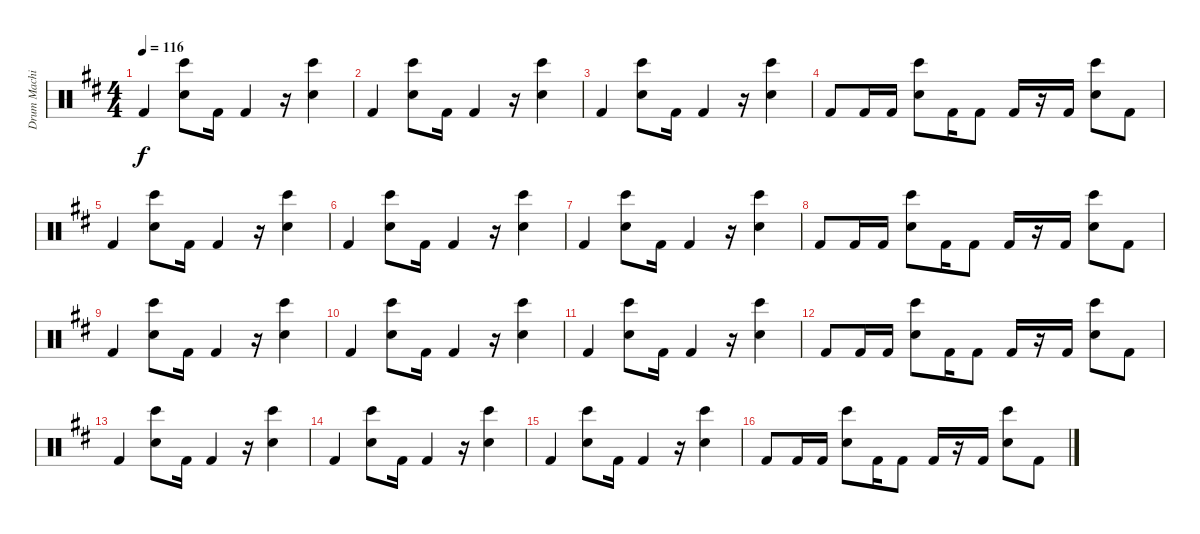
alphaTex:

\track ("Drum Machine" "Drum Machi") {instrument percussion}
\staff {score}
\articulation defaults
\ts (4 4)
\tempo 116
\clef neutral
\ks bminor "Kick (hit) 2".4{dy f}
("Bongo High (hit)" "Electric Snare (hit)").8 "Kick (hit) 2".16 "Kick (hit) 2".4 r.16 ("Bongo High (hit)" "Electric Snare (hit)").4 |
"Kick (hit) 2".4 ("Bongo High (hit)" "Electric Snare (hit)").8 "Kick (hit) 2".16 "Kick (hit) 2".4 r.16 ("Bongo High (hit)" "Electric Snare (hit)").4 |
"Kick (hit) 2".4 ("Bongo High (hit)" "Electric Snare (hit)").8 "Kick (hit) 2".16 "Kick (hit) 2".4 r.16 ("Bongo High (hit)" "Electric Snare (hit)").4 |
"Kick (hit) 2".8 "Kick (hit) 2".16 "Kick (hit) 2".16 ("Bongo High (hit)" "Electric Snare (hit)").8 "Kick (hit) 2".16 "Kick (hit) 2".8 "Kick (hit) 2".16 r.16 "Kick (hit) 2".16 ("Bongo High (hit)" "Electric Snare (hit)").8 "Kick (hit) 2".8 |
"Kick (hit) 2".4 ("Bongo High (hit)" "Electric Snare (hit)").8 "Kick (hit) 2".16 "Kick (hit) 2".4 r.16 ("Bongo High (hit)" "Electric Snare (hit)").4 |
"Kick (hit) 2".4 ("Bongo High (hit)" "Electric Snare (hit)").8 "Kick (hit) 2".16 "Kick (hit) 2".4 r.16 ("Bongo High (hit)" "Electric Snare (hit)").4 |
"Kick (hit) 2".4 ("Bongo High (hit)" "Electric Snare (hit)").8 "Kick (hit) 2".16 "Kick (hit) 2".4 r.16 ("Bongo High (hit)" "Electric Snare (hit)").4 |
"Kick (hit) 2".8 "Kick (hit) 2".16 "Kick (hit) 2".16 ("Bongo High (hit)" "Electric Snare (hit)").8 "Kick (hit) 2".16 "Kick (hit) 2".8 "Kick (hit) 2".16 r.16 "Kick (hit) 2".16 ("Bongo High (hit)" "Electric Snare (hit)").8 "Kick (hit) 2".8 |
"Kick (hit) 2".4 ("Bongo High (hit)" "Electric Snare (hit)").8 "Kick (hit) 2".16 "Kick (hit) 2".4 r.16 ("Bongo High (hit)" "Electric Snare (hit)").4 |
"Kick (hit) 2".4 ("Bongo High (hit)" "Electric Snare (hit)").8 "Kick (hit) 2".16 "Kick (hit) 2".4 r.16 ("Bongo High (hit)" "Electric Snare (hit)").4 |
"Kick (hit) 2".4 ("Bongo High (hit)" "Electric Snare (hit)").8 "Kick (hit) 2".16 "Kick (hit) 2".4 r.16 ("Bongo High (hit)" "Electric Snare (hit)").4 |
"Kick (hit) 2".8 "Kick (hit) 2".16 "Kick (hit) 2".16 ("Bongo High (hit)" "Electric Snare (hit)").8 "Kick (hit) 2".16 "Kick (hit) 2".8 "Kick (hit) 2".16 r.16 "Kick (hit) 2".16 ("Bongo High (hit)" "Electric Snare (hit)").8 "Kick (hit) 2".8 |
"Kick (hit) 2".4 ("Bongo High (hit)" "Electric Snare (hit)").8 "Kick (hit) 2".16 "Kick (hit) 2".4 r.16 ("Bongo High (hit)" "Electric Snare (hit)").4 |
"Kick (hit) 2".4 ("Bongo High (hit)" "Electric Snare (hit)").8 "Kick (hit) 2".16 "Kick (hit) 2".4 r.16 ("Bongo High (hit)" "Electric Snare (hit)").4 |
"Kick (hit) 2".4 ("Bongo High (hit)" "Electric Snare (hit)").8 "Kick (hit) 2".16 "Kick (hit) 2".4 r.16 ("Bongo High (hit)" "Electric Snare (hit)").4 |
"Kick (hit) 2".8 "Kick (hit) 2".16 "Kick (hit) 2".16 ("Bongo High (hit)" "Electric Snare (hit)").8 "Kick (hit) 2".16 "Kick (hit) 2".8 "Kick (hit) 2".16 r.16 "Kick (hit) 2".16 ("Bongo High (hit)" "Electric Snare (hit)").8 "Kick (hit) 2".8
